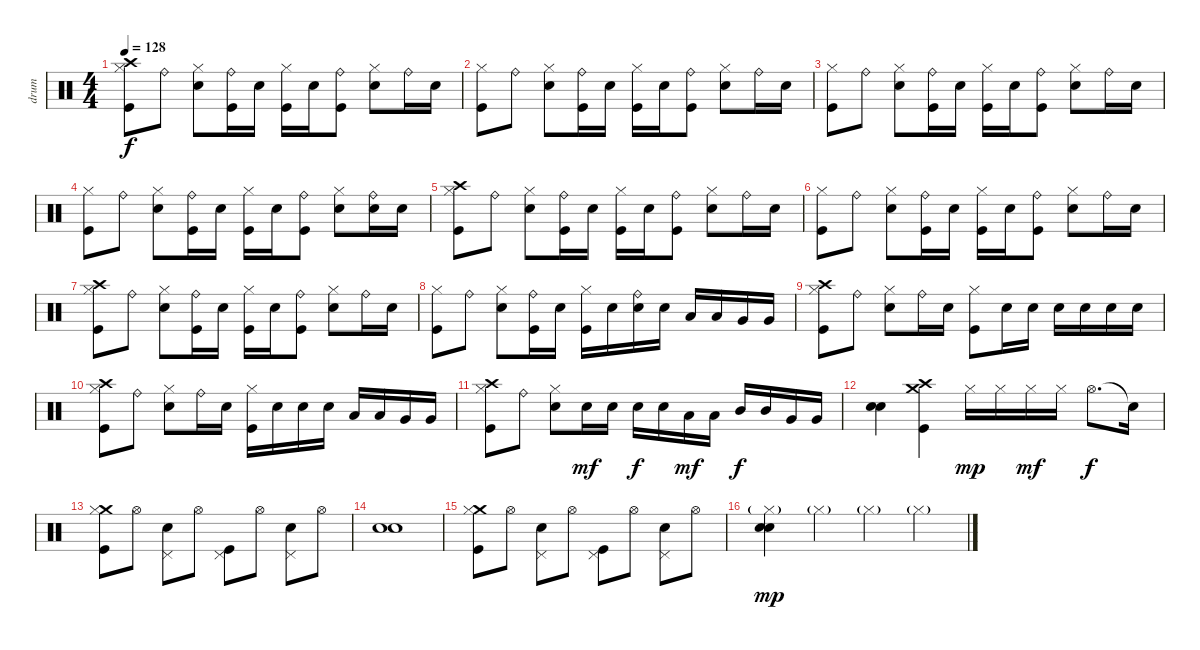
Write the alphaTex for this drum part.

\track ("drum" "drum") {instrument percussion}
\staff {score}
\articulation defaults
\ts (4 4)
\tempo 128
\clef neutral
\ks c
("Crash high (hit)" "Hi-Hat (closed)" "Kick (hit)").8{dy f} "Ride (bell)".8 ("Hi-Hat (closed)" "Snare (hit) 2").8 ("Ride (bell)" "Kick (hit)").16 "Snare (hit) 2".16 ("Hi-Hat (closed)" "Kick (hit)").16 "Snare (hit) 2".16 ("Ride (bell)" "Kick (hit)").8 ("Hi-Hat (closed)" "Snare (hit) 2").8 "Ride (bell)".16 "Snare (hit) 2".16 |
("Hi-Hat (closed)" "Kick (hit)").8 "Ride (bell)".8 ("Hi-Hat (closed)" "Snare (hit) 2").8 ("Ride (bell)" "Kick (hit)").16 "Snare (hit) 2".16 ("Hi-Hat (closed)" "Kick (hit)").16 "Snare (hit) 2".16 ("Ride (bell)" "Kick (hit)").8 ("Hi-Hat (closed)" "Snare (hit) 2").8 "Ride (bell)".16 "Snare (hit) 2".16 |
("Hi-Hat (closed)" "Kick (hit)").8 "Ride (bell)".8 ("Hi-Hat (closed)" "Snare (hit) 2").8 ("Ride (bell)" "Kick (hit)").16 "Snare (hit) 2".16 ("Hi-Hat (closed)" "Kick (hit)").16 "Snare (hit) 2".16 ("Ride (bell)" "Kick (hit)").8 ("Hi-Hat (closed)" "Snare (hit) 2").8 "Ride (bell)".16 "Snare (hit) 2".16 |
("Hi-Hat (closed)" "Kick (hit)").8 "Ride (bell)".8 ("Hi-Hat (closed)" "Snare (hit) 2").8 ("Ride (bell)" "Kick (hit)").16 "Snare (hit) 2".16 ("Hi-Hat (closed)" "Kick (hit)").16 "Snare (hit) 2".16 ("Ride (bell)" "Kick (hit)").8 ("Hi-Hat (closed)" "Snare (hit) 2").8 ("Ride (bell)" "Snare (hit) 2").16 "Snare (hit) 2".16 |
("Crash high (hit)" "Hi-Hat (closed)" "Kick (hit)").8 "Ride (bell)".8 ("Hi-Hat (closed)" "Snare (hit) 2").8 ("Ride (bell)" "Kick (hit)").16 "Snare (hit) 2".16 ("Hi-Hat (closed)" "Kick (hit)").16 "Snare (hit) 2".16 ("Ride (bell)" "Kick (hit)").8 ("Hi-Hat (closed)" "Snare (hit) 2").8 "Ride (bell)".16 "Snare (hit) 2".16 |
("Hi-Hat (closed)" "Kick (hit)").8 "Ride (bell)".8 ("Hi-Hat (closed)" "Snare (hit) 2").8 ("Ride (bell)" "Kick (hit)").16 "Snare (hit) 2".16 ("Hi-Hat (closed)" "Kick (hit)").16 "Snare (hit) 2".16 ("Ride (bell)" "Kick (hit)").8 ("Hi-Hat (closed)" "Snare (hit) 2").8 "Ride (bell)".16 "Snare (hit) 2".16 |
("Crash high (hit)" "Hi-Hat (closed)" "Kick (hit)").8 "Ride (bell)".8 ("Hi-Hat (closed)" "Snare (hit) 2").8 ("Ride (bell)" "Kick (hit)").16 "Snare (hit) 2".16 ("Hi-Hat (closed)" "Kick (hit)").16 "Snare (hit) 2".16 ("Ride (bell)" "Kick (hit)").8 ("Hi-Hat (closed)" "Snare (hit) 2").8 "Ride (bell)".16 "Snare (hit) 2".16 |
("Hi-Hat (closed)" "Kick (hit)").8 "Ride (bell)".8 ("Hi-Hat (closed)" "Snare (hit) 2").8 ("Ride (bell)" "Kick (hit)").16 "Snare (hit) 2".16 ("Hi-Hat (closed)" "Kick (hit)").16 "Snare (hit) 2".16 ("Ride (bell)" "Snare (hit) 2").16 "Snare (hit) 2".16 "Low Tom (hit)".16 "Low Tom (hit)".16 "Very Low Tom (hit)".16 "Very Low Tom (hit)".16 |
("Crash high (hit)" "Hi-Hat (closed)" "Kick (hit)").8 "Ride (bell)".8 ("Hi-Hat (closed)" "Snare (hit) 2").8 "Ride (bell)".16 "Snare (hit) 2".16 ("Hi-Hat (closed)" "Kick (hit)").8 "Snare (hit) 2".16 "Snare (hit) 2".16 "Snare (hit) 2".16 "Snare (hit) 2".16 "Snare (hit) 2".16 "Snare (hit) 2".16 |
("Crash high (hit)" "Hi-Hat (closed)" "Kick (hit)").8 "Ride (bell)".8 ("Hi-Hat (closed)" "Snare (hit) 2").8 "Ride (bell)".16 "Snare (hit) 2".16 ("Hi-Hat (closed)" "Kick (hit)").16 "Snare (hit) 2".16 "Snare (hit) 2".16 "Snare (hit) 2".16 "Low Tom (hit)".16 "Low Tom (hit)".16 "Very Low Tom (hit)".16 "Very Low Tom (hit)".16 |
("Crash high (hit)" "Hi-Hat (closed)" "Kick (hit)").8 "Ride (bell)".8 ("Hi-Hat (closed)" "Snare (hit) 2").8 "Snare (hit) 2".16{dy mf} "Snare (hit) 2".16 "Snare (hit) 2".16{dy f} "Snare (hit) 2".16 "Low Tom (hit)".16{dy mf} "Low Tom (hit)".16 "Mid Tom (hit)".16{dy f} "Mid Tom (hit)".16 "Very Low Tom (hit)".16 "Very Low Tom (hit)".16 |
("Snare (hit) 2" "Snare (hit) 2").4{bd 240} ("Crash high (hit)" "Crash medium (hit)" "Kick (hit)").4 "Hi-Hat (closed)".16{dy mp} "Hi-Hat (closed)".16 "Hi-Hat (closed)".16{dy mf} "Hi-Hat (closed)".16 "Hi-Hat (open)".8{d dy f} "Snare (hit)"{t}.16 |
("Crash medium (hit)" "Hi-Hat (closed)" "Kick (hit)").8 "Hi-Hat (open)".8 ("Pedal Hi-Hat (hit)" "Snare (hit) 2").8 "Hi-Hat (open)".8 ("Pedal Hi-Hat (hit)" "Kick (hit)").8 "Hi-Hat (open)".8 ("Pedal Hi-Hat (hit)" "Snare (hit) 2").8 "Hi-Hat (open)".8 |
("Electric Snare (hit)" "Snare (hit) 2").1 |
("Crash medium (hit)" "Hi-Hat (closed)" "Kick (hit)").8 "Hi-Hat (open)".8 ("Pedal Hi-Hat (hit)" "Snare (hit) 2").8 "Hi-Hat (open)".8 ("Pedal Hi-Hat (hit)" "Kick (hit)").8 "Hi-Hat (open)".8 ("Pedal Hi-Hat (hit)" "Snare (hit) 2").8 "Hi-Hat (open)".8 |
("Hi-Hat (closed)"{g} "Electric Snare (hit)" "Snare (hit) 2").4{dy mp} "Hi-Hat (closed)"{g}.4 "Hi-Hat (closed)"{g}.4 "Hi-Hat (closed)"{g}.4
